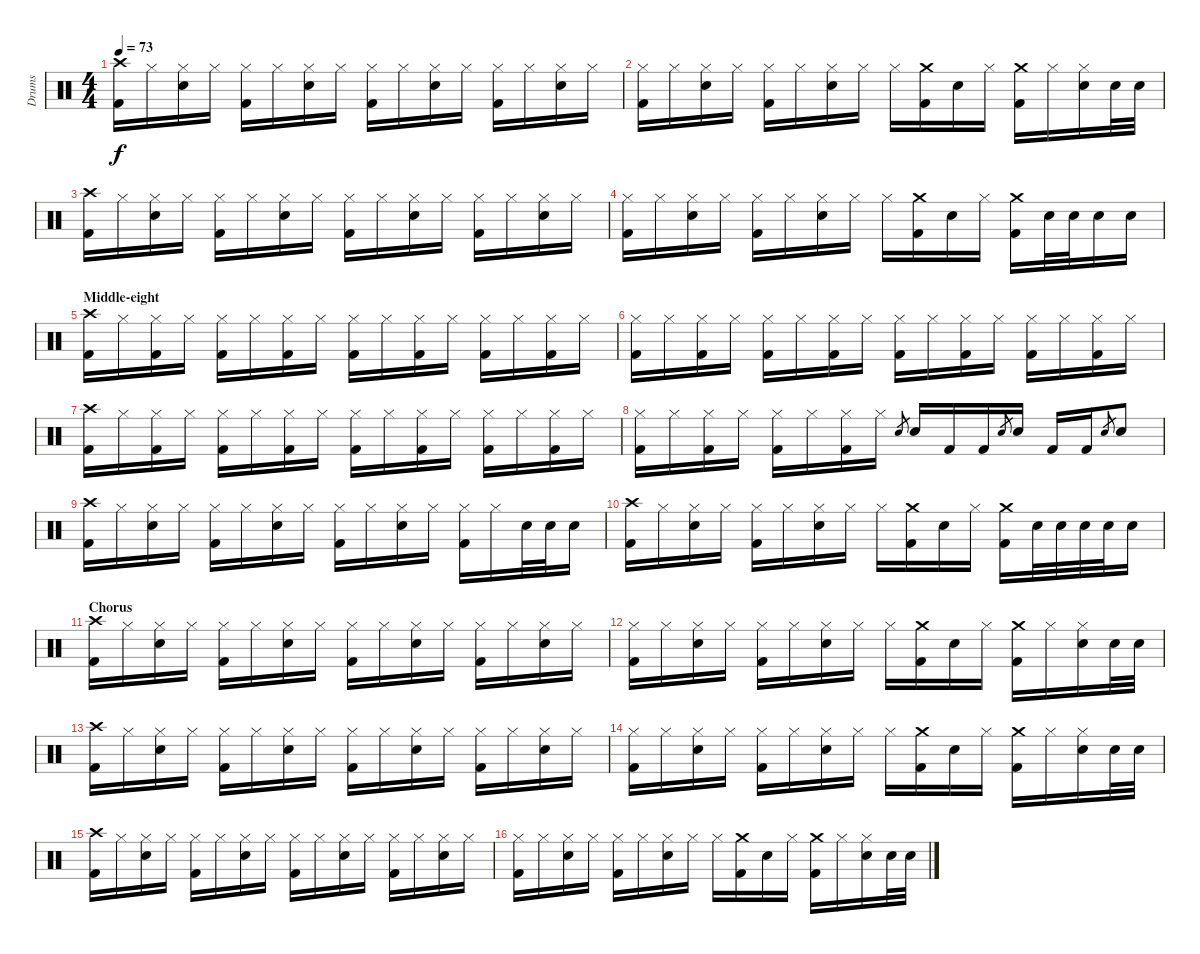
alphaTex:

\track ("Drums" "Drums") {instrument percussion}
\staff {score}
\articulation defaults
\ts (4 4)
\tempo 73
\clef neutral
\ks c
("Crash high (hit)" "Kick (hit) 2").16{dy f} "Hi-Hat (closed)".16 ("Hi-Hat (closed)" "Snare (hit) 2").16 "Hi-Hat (closed)".16 ("Hi-Hat (closed)" "Kick (hit) 2").16 "Hi-Hat (closed)".16 ("Hi-Hat (closed)" "Snare (hit) 2").16 "Hi-Hat (closed)".16 ("Hi-Hat (closed)" "Kick (hit) 2").16 "Hi-Hat (closed)".16 ("Hi-Hat (closed)" "Snare (hit) 2").16 "Hi-Hat (closed)".16 ("Hi-Hat (closed)" "Kick (hit) 2").16 "Hi-Hat (closed)".16 ("Hi-Hat (closed)" "Snare (hit) 2").16 "Hi-Hat (closed)".16 |
("Hi-Hat (closed)" "Kick (hit) 2").16 "Hi-Hat (closed)".16 ("Hi-Hat (closed)" "Snare (hit) 2").16 "Hi-Hat (closed)".16 ("Hi-Hat (closed)" "Kick (hit) 2").16 "Hi-Hat (closed)".16 ("Hi-Hat (closed)" "Snare (hit) 2").16 "Hi-Hat (closed)".16 "Hi-Hat (closed)".16 ("Crash medium (hit)" "Kick (hit) 2").16 "Snare (hit) 2".16 "Hi-Hat (closed)".16 ("Crash medium (hit)" "Kick (hit) 2").16 "Hi-Hat (closed)".16 ("Hi-Hat (closed)" "Snare (hit) 2").16 "Snare (hit) 2".32 "Snare (hit) 2".32 |
("Crash high (hit)" "Kick (hit) 2").16 "Hi-Hat (closed)".16 ("Hi-Hat (closed)" "Snare (hit) 2").16 "Hi-Hat (closed)".16 ("Hi-Hat (closed)" "Kick (hit) 2").16 "Hi-Hat (closed)".16 ("Hi-Hat (closed)" "Snare (hit) 2").16 "Hi-Hat (closed)".16 ("Hi-Hat (closed)" "Kick (hit) 2").16 "Hi-Hat (closed)".16 ("Hi-Hat (closed)" "Snare (hit) 2").16 "Hi-Hat (closed)".16 ("Hi-Hat (closed)" "Kick (hit) 2").16 "Hi-Hat (closed)".16 ("Hi-Hat (closed)" "Snare (hit) 2").16 "Hi-Hat (closed)".16 |
("Hi-Hat (closed)" "Kick (hit) 2").16 "Hi-Hat (closed)".16 ("Hi-Hat (closed)" "Snare (hit) 2").16 "Hi-Hat (closed)".16 ("Hi-Hat (closed)" "Kick (hit) 2").16 "Hi-Hat (closed)".16 ("Hi-Hat (closed)" "Snare (hit) 2").16 "Hi-Hat (closed)".16 "Hi-Hat (closed)".16 ("Crash medium (hit)" "Kick (hit) 2").16 "Snare (hit) 2".16 "Hi-Hat (closed)".16 ("Crash medium (hit)" "Kick (hit) 2").16 "Snare (hit) 2".32 "Snare (hit) 2".32 "Snare (hit) 2".16 "Snare (hit) 2".16 |
\section ("" "Middle-eight")
("Crash high (hit)" "Kick (hit) 2").16 "Hi-Hat (closed)".16 ("Hi-Hat (closed)" "Kick (hit) 2").16 "Hi-Hat (closed)".16 ("Hi-Hat (closed)" "Kick (hit) 2").16 "Hi-Hat (closed)".16 ("Hi-Hat (closed)" "Kick (hit) 2").16 "Hi-Hat (closed)".16 ("Hi-Hat (closed)" "Kick (hit) 2").16 "Hi-Hat (closed)".16 ("Hi-Hat (closed)" "Kick (hit) 2").16 "Hi-Hat (closed)".16 ("Hi-Hat (closed)" "Kick (hit) 2").16 "Hi-Hat (closed)".16 ("Hi-Hat (closed)" "Kick (hit) 2").16 "Hi-Hat (closed)".16 |
("Hi-Hat (closed)" "Kick (hit) 2").16 "Hi-Hat (closed)".16 ("Hi-Hat (closed)" "Kick (hit) 2").16 "Hi-Hat (closed)".16 ("Hi-Hat (closed)" "Kick (hit) 2").16 "Hi-Hat (closed)".16 ("Hi-Hat (closed)" "Kick (hit) 2").16 "Hi-Hat (closed)".16 ("Hi-Hat (closed)" "Kick (hit) 2").16 "Hi-Hat (closed)".16 ("Hi-Hat (closed)" "Kick (hit) 2").16 "Hi-Hat (closed)".16 ("Hi-Hat (closed)" "Kick (hit) 2").16 "Hi-Hat (closed)".16 ("Hi-Hat (closed)" "Kick (hit) 2").16 "Hi-Hat (closed)".16 |
("Crash high (hit)" "Kick (hit) 2").16 "Hi-Hat (closed)".16 ("Hi-Hat (closed)" "Kick (hit) 2").16 "Hi-Hat (closed)".16 ("Hi-Hat (closed)" "Kick (hit) 2").16 "Hi-Hat (closed)".16 ("Hi-Hat (closed)" "Kick (hit) 2").16 "Hi-Hat (closed)".16 ("Hi-Hat (closed)" "Kick (hit) 2").16 "Hi-Hat (closed)".16 ("Hi-Hat (closed)" "Kick (hit) 2").16 "Hi-Hat (closed)".16 ("Hi-Hat (closed)" "Kick (hit) 2").16 "Hi-Hat (closed)".16 ("Hi-Hat (closed)" "Kick (hit) 2").16 "Hi-Hat (closed)".16 |
("Hi-Hat (closed)" "Kick (hit) 2").16 "Hi-Hat (closed)".16 ("Hi-Hat (closed)" "Kick (hit) 2").16 "Hi-Hat (closed)".16 ("Hi-Hat (closed)" "Kick (hit) 2").16 "Hi-Hat (closed)".16 ("Hi-Hat (closed)" "Kick (hit) 2").16 "Hi-Hat (closed)".16 "Snare (hit) 2".8{gr} "Snare (hit) 2".16 "Kick (hit) 2".16 "Kick (hit) 2".16 "Snare (hit) 2".8{gr} "Snare (hit) 2".16 "Kick (hit) 2".16 "Kick (hit) 2".16 "Snare (hit) 2".8{gr} "Snare (hit) 2".8 |
("Crash high (hit)" "Kick (hit) 2").16 "Hi-Hat (closed)".16 ("Hi-Hat (closed)" "Snare (hit) 2").16 "Hi-Hat (closed)".16 ("Hi-Hat (closed)" "Kick (hit) 2").16 "Hi-Hat (closed)".16 ("Hi-Hat (closed)" "Snare (hit) 2").16 "Hi-Hat (closed)".16 ("Hi-Hat (closed)" "Kick (hit) 2").16 "Hi-Hat (closed)".16 ("Hi-Hat (closed)" "Snare (hit) 2").16 "Hi-Hat (closed)".16 ("Hi-Hat (closed)" "Kick (hit) 2").16 "Hi-Hat (closed)".16 "Snare (hit) 2".32 "Snare (hit) 2".32 "Snare (hit) 2".16 |
("Crash high (hit)" "Kick (hit) 2").16 "Hi-Hat (closed)".16 ("Hi-Hat (closed)" "Snare (hit) 2").16 "Hi-Hat (closed)".16 ("Hi-Hat (closed)" "Kick (hit) 2").16 "Hi-Hat (closed)".16 ("Hi-Hat (closed)" "Snare (hit) 2").16 "Hi-Hat (closed)".16 "Hi-Hat (closed)".16 ("Crash medium (hit)" "Kick (hit) 2").16 "Snare (hit) 2".16 "Hi-Hat (closed)".16 ("Crash medium (hit)" "Kick (hit) 2").16 "Snare (hit) 2".32 "Snare (hit) 2".32 "Snare (hit) 2".32 "Snare (hit) 2".32 "Snare (hit) 2".16 |
\section ("" "Chorus")
("Crash high (hit)" "Kick (hit) 2").16 "Hi-Hat (closed)".16 ("Hi-Hat (closed)" "Snare (hit) 2").16 "Hi-Hat (closed)".16 ("Hi-Hat (closed)" "Kick (hit) 2").16 "Hi-Hat (closed)".16 ("Hi-Hat (closed)" "Snare (hit) 2").16 "Hi-Hat (closed)".16 ("Hi-Hat (closed)" "Kick (hit) 2").16 "Hi-Hat (closed)".16 ("Hi-Hat (closed)" "Snare (hit) 2").16 "Hi-Hat (closed)".16 ("Hi-Hat (closed)" "Kick (hit) 2").16 "Hi-Hat (closed)".16 ("Hi-Hat (closed)" "Snare (hit) 2").16 "Hi-Hat (closed)".16 |
("Hi-Hat (closed)" "Kick (hit) 2").16 "Hi-Hat (closed)".16 ("Hi-Hat (closed)" "Snare (hit) 2").16 "Hi-Hat (closed)".16 ("Hi-Hat (closed)" "Kick (hit) 2").16 "Hi-Hat (closed)".16 ("Hi-Hat (closed)" "Snare (hit) 2").16 "Hi-Hat (closed)".16 "Hi-Hat (closed)".16 ("Crash medium (hit)" "Kick (hit) 2").16 "Snare (hit) 2".16 "Hi-Hat (closed)".16 ("Crash medium (hit)" "Kick (hit) 2").16 "Hi-Hat (closed)".16 ("Hi-Hat (closed)" "Snare (hit) 2").16 "Snare (hit) 2".32 "Snare (hit) 2".32 |
("Crash high (hit)" "Kick (hit) 2").16 "Hi-Hat (closed)".16 ("Hi-Hat (closed)" "Snare (hit) 2").16 "Hi-Hat (closed)".16 ("Hi-Hat (closed)" "Kick (hit) 2").16 "Hi-Hat (closed)".16 ("Hi-Hat (closed)" "Snare (hit) 2").16 "Hi-Hat (closed)".16 ("Hi-Hat (closed)" "Kick (hit) 2").16 "Hi-Hat (closed)".16 ("Hi-Hat (closed)" "Snare (hit) 2").16 "Hi-Hat (closed)".16 ("Hi-Hat (closed)" "Kick (hit) 2").16 "Hi-Hat (closed)".16 ("Hi-Hat (closed)" "Snare (hit) 2").16 "Hi-Hat (closed)".16 |
("Hi-Hat (closed)" "Kick (hit) 2").16 "Hi-Hat (closed)".16 ("Hi-Hat (closed)" "Snare (hit) 2").16 "Hi-Hat (closed)".16 ("Hi-Hat (closed)" "Kick (hit) 2").16 "Hi-Hat (closed)".16 ("Hi-Hat (closed)" "Snare (hit) 2").16 "Hi-Hat (closed)".16 "Hi-Hat (closed)".16 ("Crash medium (hit)" "Kick (hit) 2").16 "Snare (hit) 2".16 "Hi-Hat (closed)".16 ("Crash medium (hit)" "Kick (hit) 2").16 "Hi-Hat (closed)".16 ("Hi-Hat (closed)" "Snare (hit) 2").16 "Snare (hit) 2".32 "Snare (hit) 2".32 |
("Crash high (hit)" "Kick (hit) 2").16 "Hi-Hat (closed)".16 ("Hi-Hat (closed)" "Snare (hit) 2").16 "Hi-Hat (closed)".16 ("Hi-Hat (closed)" "Kick (hit) 2").16 "Hi-Hat (closed)".16 ("Hi-Hat (closed)" "Snare (hit) 2").16 "Hi-Hat (closed)".16 ("Hi-Hat (closed)" "Kick (hit) 2").16 "Hi-Hat (closed)".16 ("Hi-Hat (closed)" "Snare (hit) 2").16 "Hi-Hat (closed)".16 ("Hi-Hat (closed)" "Kick (hit) 2").16 "Hi-Hat (closed)".16 ("Hi-Hat (closed)" "Snare (hit) 2").16 "Hi-Hat (closed)".16 |
("Hi-Hat (closed)" "Kick (hit) 2").16 "Hi-Hat (closed)".16 ("Hi-Hat (closed)" "Snare (hit) 2").16 "Hi-Hat (closed)".16 ("Hi-Hat (closed)" "Kick (hit) 2").16 "Hi-Hat (closed)".16 ("Hi-Hat (closed)" "Snare (hit) 2").16 "Hi-Hat (closed)".16 "Hi-Hat (closed)".16 ("Crash medium (hit)" "Kick (hit) 2").16 "Snare (hit) 2".16 "Hi-Hat (closed)".16 ("Crash medium (hit)" "Kick (hit) 2").16 "Hi-Hat (closed)".16 ("Hi-Hat (closed)" "Snare (hit) 2").16 "Snare (hit) 2".32 "Snare (hit) 2".32
